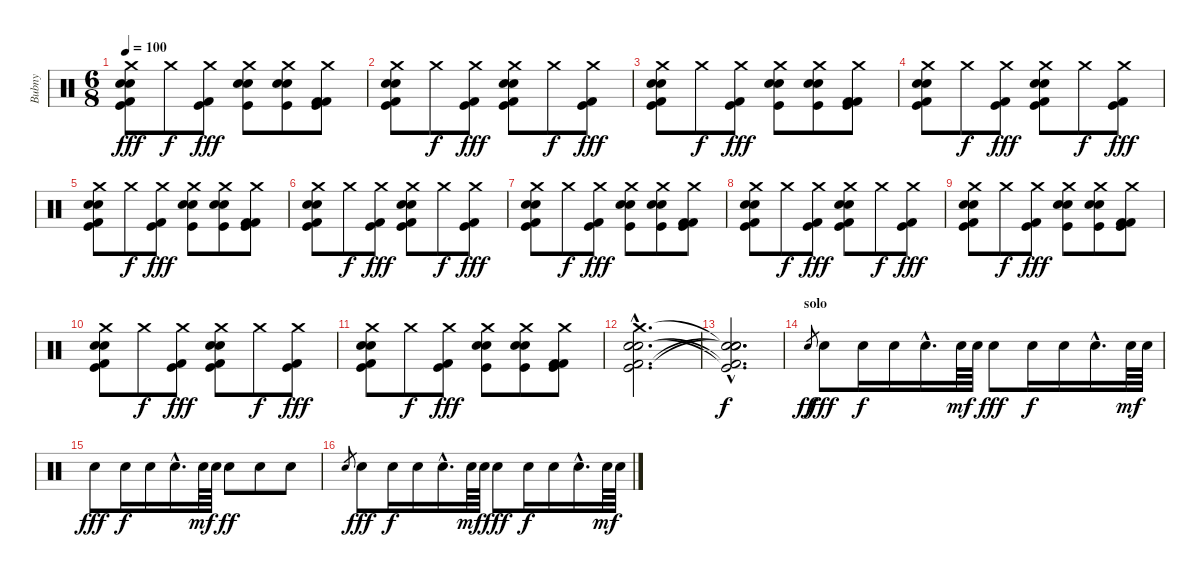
\track ("Bubny" "Bubny") {instrument percussion}
\staff {score}
\articulation defaults
\ts (6 8)
\tempo 100
\clef neutral
\ks c
("Crash medium (hit)" "Electric Snare (hit)" "Snare (hit) 2" "Kick (hit)" "Kick (hit) 2").8{dy fff} "Crash medium (hit)".8{dy f} ("Crash medium (hit)" "Kick (hit)" "Kick (hit) 2").8{dy fff} ("Crash medium (hit)" "Electric Snare (hit)" "Electric Snare (hit)" "Kick (hit)").8 ("Crash medium (hit)" "Snare (hit) 2" "Snare (hit) 2" "Kick (hit)").8 ("Crash medium (hit)" "Kick (hit)" "Kick (hit) 2" "Kick (hit) 2").8 |
("Crash medium (hit)" "Electric Snare (hit)" "Snare (hit) 2" "Kick (hit)" "Kick (hit) 2").8 "Crash medium (hit)".8{dy f} ("Crash medium (hit)" "Kick (hit)" "Kick (hit) 2").8{dy fff} ("Crash medium (hit)" "Electric Snare (hit)" "Snare (hit) 2" "Kick (hit)" "Kick (hit) 2").8 "Crash medium (hit)".8{dy f} ("Crash medium (hit)" "Kick (hit)" "Kick (hit) 2").8{dy fff} |
("Crash medium (hit)" "Electric Snare (hit)" "Snare (hit) 2" "Kick (hit)" "Kick (hit) 2").8 "Crash medium (hit)".8{dy f} ("Crash medium (hit)" "Kick (hit)" "Kick (hit) 2").8{dy fff} ("Crash medium (hit)" "Electric Snare (hit)" "Electric Snare (hit)" "Kick (hit)").8 ("Crash medium (hit)" "Snare (hit) 2" "Snare (hit) 2" "Kick (hit)").8 ("Crash medium (hit)" "Kick (hit)" "Kick (hit) 2" "Kick (hit) 2").8 |
("Crash medium (hit)" "Electric Snare (hit)" "Snare (hit) 2" "Kick (hit)" "Kick (hit) 2").8 "Crash medium (hit)".8{dy f} ("Crash medium (hit)" "Kick (hit)" "Kick (hit) 2").8{dy fff} ("Crash medium (hit)" "Electric Snare (hit)" "Snare (hit) 2" "Kick (hit)" "Kick (hit) 2").8 "Crash medium (hit)".8{dy f} ("Crash medium (hit)" "Kick (hit)" "Kick (hit) 2").8{dy fff} |
("Crash medium (hit)" "Electric Snare (hit)" "Snare (hit) 2" "Kick (hit)" "Kick (hit) 2").8 "Crash medium (hit)".8{dy f} ("Crash medium (hit)" "Kick (hit)" "Kick (hit) 2").8{dy fff} ("Crash medium (hit)" "Electric Snare (hit)" "Electric Snare (hit)" "Kick (hit)").8 ("Crash medium (hit)" "Snare (hit) 2" "Snare (hit) 2" "Kick (hit)").8 ("Crash medium (hit)" "Kick (hit)" "Kick (hit) 2" "Kick (hit) 2").8 |
("Crash medium (hit)" "Electric Snare (hit)" "Snare (hit) 2" "Kick (hit)" "Kick (hit) 2").8 "Crash medium (hit)".8{dy f} ("Crash medium (hit)" "Kick (hit)" "Kick (hit) 2").8{dy fff} ("Crash medium (hit)" "Electric Snare (hit)" "Snare (hit) 2" "Kick (hit)" "Kick (hit) 2").8 "Crash medium (hit)".8{dy f} ("Crash medium (hit)" "Kick (hit)" "Kick (hit) 2").8{dy fff} |
("Crash medium (hit)" "Electric Snare (hit)" "Snare (hit) 2" "Kick (hit)" "Kick (hit) 2").8 "Crash medium (hit)".8{dy f} ("Crash medium (hit)" "Kick (hit)" "Kick (hit) 2").8{dy fff} ("Crash medium (hit)" "Electric Snare (hit)" "Electric Snare (hit)" "Kick (hit)").8 ("Crash medium (hit)" "Snare (hit) 2" "Snare (hit) 2" "Kick (hit)").8 ("Crash medium (hit)" "Kick (hit)" "Kick (hit) 2" "Kick (hit) 2").8 |
("Crash medium (hit)" "Electric Snare (hit)" "Snare (hit) 2" "Kick (hit)" "Kick (hit) 2").8 "Crash medium (hit)".8{dy f} ("Crash medium (hit)" "Kick (hit)" "Kick (hit) 2").8{dy fff} ("Crash medium (hit)" "Electric Snare (hit)" "Snare (hit) 2" "Kick (hit)" "Kick (hit) 2").8 "Crash medium (hit)".8{dy f} ("Crash medium (hit)" "Kick (hit)" "Kick (hit) 2").8{dy fff} |
("Crash medium (hit)" "Electric Snare (hit)" "Snare (hit) 2" "Kick (hit)" "Kick (hit) 2").8 "Crash medium (hit)".8{dy f} ("Crash medium (hit)" "Kick (hit)" "Kick (hit) 2").8{dy fff} ("Crash medium (hit)" "Electric Snare (hit)" "Electric Snare (hit)" "Kick (hit)").8 ("Crash medium (hit)" "Snare (hit) 2" "Snare (hit) 2" "Kick (hit)").8 ("Crash medium (hit)" "Kick (hit)" "Kick (hit) 2" "Kick (hit) 2").8 |
("Crash medium (hit)" "Electric Snare (hit)" "Snare (hit) 2" "Kick (hit)" "Kick (hit) 2").8 "Crash medium (hit)".8{dy f} ("Crash medium (hit)" "Kick (hit)" "Kick (hit) 2").8{dy fff} ("Crash medium (hit)" "Electric Snare (hit)" "Snare (hit) 2" "Kick (hit)" "Kick (hit) 2").8 "Crash medium (hit)".8{dy f} ("Crash medium (hit)" "Kick (hit)" "Kick (hit) 2").8{dy fff} |
("Crash medium (hit)" "Electric Snare (hit)" "Snare (hit) 2" "Kick (hit)" "Kick (hit) 2").8 "Crash medium (hit)".8{dy f} ("Crash medium (hit)" "Kick (hit)" "Kick (hit) 2").8{dy fff} ("Crash medium (hit)" "Electric Snare (hit)" "Electric Snare (hit)" "Kick (hit)").8 ("Crash medium (hit)" "Snare (hit) 2" "Snare (hit) 2" "Kick (hit)").8 ("Crash medium (hit)" "Kick (hit)" "Kick (hit) 2" "Kick (hit) 2").8 |
("Crash medium (hit)"{hac} "Electric Snare (hit)"{hac} "Snare (hit) 2"{hac} "Kick (hit)"{hac} "Kick (hit) 2"{hac}).2{d} |
("Snare (hit) 2"{hac t} "Kick (hit)"{hac t} "Kick (hit) 2"{hac t} "Snare (hit)"{hac t} "Snare (hit)"{hac t}).2{d dy f} |
\section ("" "solo")
"Electric Snare (hit)".8{gr dy ff} "Electric Snare (hit)".8{dy fff} "Electric Snare (hit)".16{dy f} "Electric Snare (hit)".16 "Electric Snare (hit)"{hac}.16{d} "Electric Snare (hit)".64{dy mf} "Electric Snare (hit)".64 "Electric Snare (hit)".8{dy fff} "Electric Snare (hit)".16{dy f} "Electric Snare (hit)".16 "Electric Snare (hit)"{hac}.16{d} "Electric Snare (hit)".64{dy mf} "Electric Snare (hit)".64 |
"Electric Snare (hit)".8{dy fff} "Electric Snare (hit)".16{dy f} "Electric Snare (hit)".16 "Electric Snare (hit)"{hac}.16{d} "Electric Snare (hit)".64{dy mf} "Electric Snare (hit)".64 "Electric Snare (hit)".8{dy ff} "Electric Snare (hit)".8 "Electric Snare (hit)".8 |
"Electric Snare (hit)".8{gr} "Electric Snare (hit)".8{dy fff} "Electric Snare (hit)".16{dy f} "Electric Snare (hit)".16 "Electric Snare (hit)"{hac}.16{d} "Electric Snare (hit)".64{dy mf} "Electric Snare (hit)".64 "Electric Snare (hit)".8{dy fff} "Electric Snare (hit)".16{dy f} "Electric Snare (hit)".16 "Electric Snare (hit)"{hac}.16{d} "Electric Snare (hit)".64{dy mf} "Electric Snare (hit)".64
